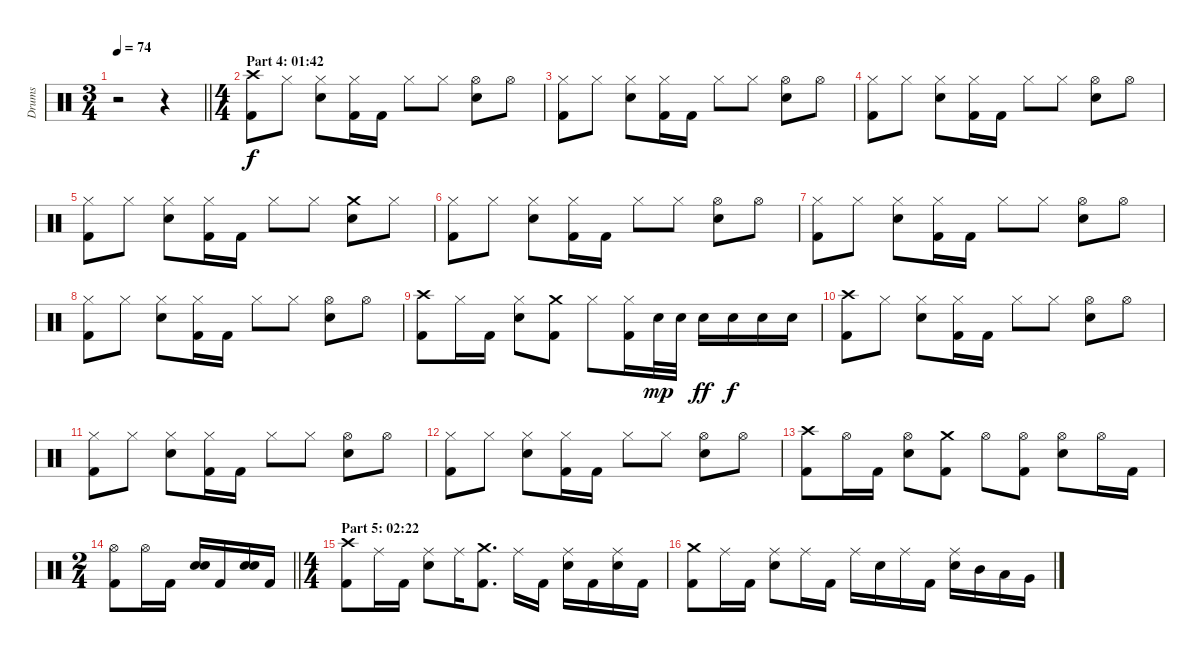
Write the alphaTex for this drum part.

\track ("Drums" "Drums") {instrument percussion}
\staff {score}
\articulation defaults
\ts (3 4)
\tempo 74
\clef neutral
\barLineRight lightlight
\ks c
r.2{dy f} r.4 |
\ts (4 4)
\section ("" "Part 4: 01:42")
("Crash high (hit)" "Kick (hit) 2").8 "Hi-Hat (closed)".8 ("Hi-Hat (closed)" "Electric Snare (hit)").8 ("Hi-Hat (closed)" "Kick (hit) 2").16 "Kick (hit) 2".16 "Hi-Hat (closed)".8 "Hi-Hat (closed)".8 ("Hi-Hat (open)" "Electric Snare (hit)").8 "Hi-Hat (open)".8 |
("Hi-Hat (closed)" "Kick (hit) 2").8 "Hi-Hat (closed)".8 ("Hi-Hat (closed)" "Electric Snare (hit)").8 ("Hi-Hat (closed)" "Kick (hit) 2").16 "Kick (hit) 2".16 "Hi-Hat (closed)".8 "Hi-Hat (closed)".8 ("Hi-Hat (open)" "Electric Snare (hit)").8 "Hi-Hat (open)".8 |
("Hi-Hat (closed)" "Kick (hit) 2").8 "Hi-Hat (closed)".8 ("Hi-Hat (closed)" "Electric Snare (hit)").8 ("Hi-Hat (closed)" "Kick (hit) 2").16 "Kick (hit) 2".16 "Hi-Hat (closed)".8 "Hi-Hat (closed)".8 ("Hi-Hat (open)" "Electric Snare (hit)").8 "Hi-Hat (open)".8 |
("Hi-Hat (closed)" "Kick (hit) 2").8 "Hi-Hat (closed)".8 ("Hi-Hat (closed)" "Electric Snare (hit)").8 ("Hi-Hat (closed)" "Kick (hit) 2").16 "Kick (hit) 2".16 "Hi-Hat (closed)".8 "Hi-Hat (closed)".8 ("Crash medium (hit)" "Electric Snare (hit)").8 "Hi-Hat (closed)".8 |
("Hi-Hat (closed)" "Kick (hit) 2").8 "Hi-Hat (closed)".8 ("Hi-Hat (closed)" "Electric Snare (hit)").8 ("Hi-Hat (closed)" "Kick (hit) 2").16 "Kick (hit) 2".16 "Hi-Hat (closed)".8 "Hi-Hat (closed)".8 ("Hi-Hat (open)" "Electric Snare (hit)").8 "Hi-Hat (open)".8 |
("Hi-Hat (closed)" "Kick (hit) 2").8 "Hi-Hat (closed)".8 ("Hi-Hat (closed)" "Electric Snare (hit)").8 ("Hi-Hat (closed)" "Kick (hit) 2").16 "Kick (hit) 2".16 "Hi-Hat (closed)".8 "Hi-Hat (closed)".8 ("Hi-Hat (open)" "Electric Snare (hit)").8 "Hi-Hat (open)".8 |
("Hi-Hat (closed)" "Kick (hit) 2").8 "Hi-Hat (closed)".8 ("Hi-Hat (closed)" "Electric Snare (hit)").8 ("Hi-Hat (closed)" "Kick (hit) 2").16 "Kick (hit) 2".16 "Hi-Hat (closed)".8 "Hi-Hat (closed)".8 ("Hi-Hat (open)" "Electric Snare (hit)").8 "Hi-Hat (open)".8 |
("Crash high (hit)" "Kick (hit) 2").8 "Hi-Hat (closed)".16 "Kick (hit) 2".16 ("Hi-Hat (closed)" "Electric Snare (hit)").8 ("Crash medium (hit)" "Kick (hit) 2").8 "Hi-Hat (closed)".8 ("Hi-Hat (closed)" "Kick (hit) 2").16 "Electric Snare (hit)".32{dy mp} "Electric Snare (hit)".32 "Electric Snare (hit)".16{dy ff} "Electric Snare (hit)".16{dy f} "Electric Snare (hit)".16 "Electric Snare (hit)".16 |
("Crash high (hit)" "Kick (hit) 2").8 "Hi-Hat (closed)".8 ("Hi-Hat (closed)" "Electric Snare (hit)").8 ("Hi-Hat (closed)" "Kick (hit) 2").16 "Kick (hit) 2".16 "Hi-Hat (closed)".8 "Hi-Hat (closed)".8 ("Hi-Hat (open)" "Electric Snare (hit)").8 "Hi-Hat (open)".8 |
("Hi-Hat (closed)" "Kick (hit) 2").8 "Hi-Hat (closed)".8 ("Hi-Hat (closed)" "Electric Snare (hit)").8 ("Hi-Hat (closed)" "Kick (hit) 2").16 "Kick (hit) 2".16 "Hi-Hat (closed)".8 "Hi-Hat (closed)".8 ("Hi-Hat (open)" "Electric Snare (hit)").8 "Hi-Hat (open)".8 |
("Hi-Hat (closed)" "Kick (hit) 2").8 "Hi-Hat (closed)".8 ("Hi-Hat (closed)" "Electric Snare (hit)").8 ("Hi-Hat (closed)" "Kick (hit) 2").16 "Kick (hit) 2".16 "Hi-Hat (closed)".8 "Hi-Hat (closed)".8 ("Hi-Hat (open)" "Electric Snare (hit)").8 "Hi-Hat (open)".8 |
("Crash high (hit)" "Kick (hit) 2").8 "Hi-Hat (open)".16 "Kick (hit) 2".16 ("Hi-Hat (open)" "Electric Snare (hit)").8 ("Crash medium (hit)" "Kick (hit) 2").8 "Hi-Hat (open)".8 ("Hi-Hat (open)" "Kick (hit) 2").8 ("Hi-Hat (open)" "Electric Snare (hit)").8 "Hi-Hat (open)".16 "Kick (hit) 2".16 |
\ts (2 4)
\barLineRight lightlight
("Hi-Hat (open)" "Kick (hit) 2").8 "Hi-Hat (open)".16 "Kick (hit) 2".16 ("Electric Snare (hit)" "Electric Snare (hit)").16{bd 120} "Kick (hit) 2".16 ("Electric Snare (hit)" "Electric Snare (hit)").16{bd 120} "Kick (hit) 2".16 |
\ts (4 4)
\section ("" "Part 5: 02:22")
("Crash high (hit)" "Kick (hit) 2").8 "Ride (middle)".16 "Kick (hit) 2".16 ("Ride (middle)" "Electric Snare (hit)").8 "Ride (middle)".16 ("Crash medium (hit)" "Kick (hit) 2").8{d} "Ride (middle)".16 "Kick (hit) 2".16 ("Ride (middle)" "Electric Snare (hit)").16 "Kick (hit) 2".16 ("Ride (middle)" "Electric Snare (hit)").16 "Kick (hit) 2".16 |
("Crash medium (hit)" "Kick (hit) 2").8 "Ride (middle)".16 "Kick (hit) 2".16 ("Ride (middle)" "Electric Snare (hit)").8 "Ride (middle)".16 "Kick (hit) 2".16 "Ride (middle)".16 "Electric Snare (hit)".16 "Ride (middle)".16 "Kick (hit) 2".16 ("Ride (middle)" "Electric Snare (hit)").16 "Mid Tom (hit)".16 "Low Tom (hit)".16 "Very Low Tom (hit)".16
